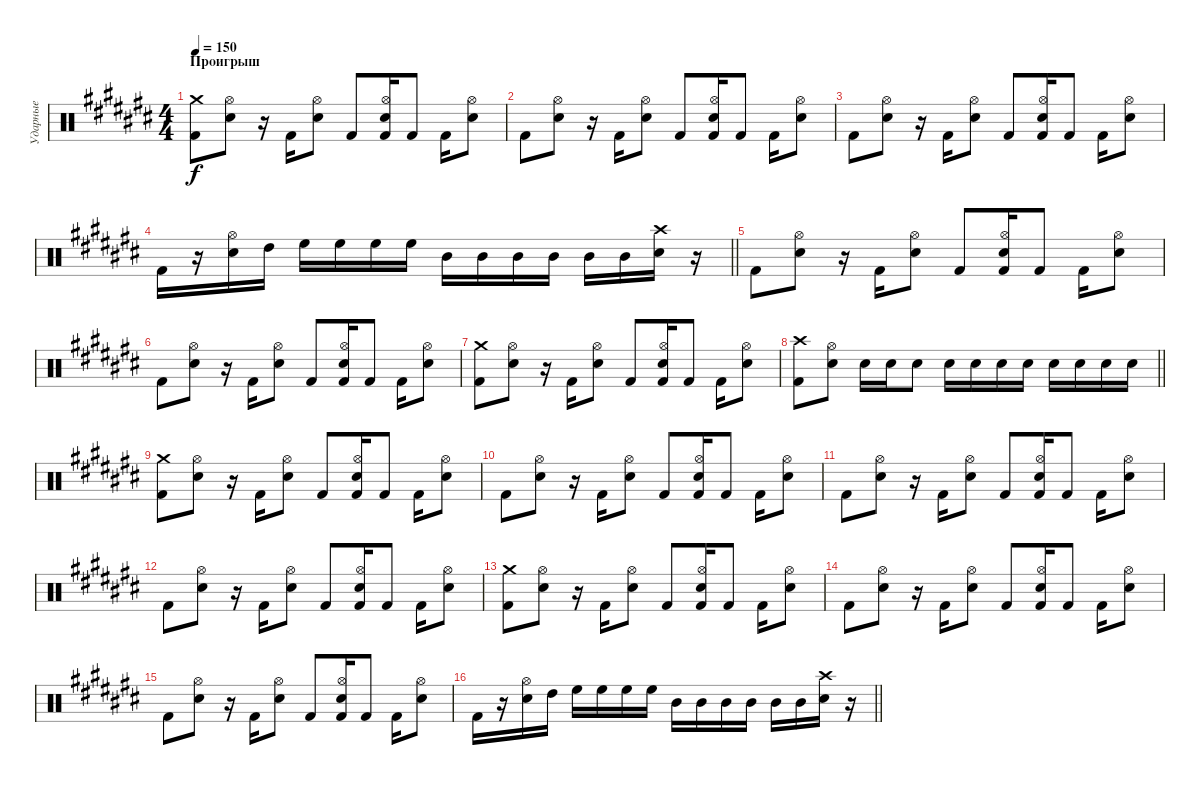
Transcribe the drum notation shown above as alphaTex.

\track ("Ударные" "Ударные") {instrument percussion}
\staff {score}
\articulation defaults
\ts (4 4)
\section ("" "Проигрыш")
\tempo 150
\clef neutral
\ks a#minor
("Crash medium (hit)" "Kick (hit) 2").8{dy f} ("Hi-Hat (open)" "Electric Snare (hit)").8 r.16 "Kick (hit) 2".16 ("Hi-Hat (open)" "Electric Snare (hit)").8 "Kick (hit) 2".8 ("Kick (hit) 2" "Hi-Hat (open)" "Electric Snare (hit)").16 "Kick (hit) 2".8 "Kick (hit) 2".16 ("Hi-Hat (open)" "Electric Snare (hit)").8 |
"Kick (hit) 2".8 ("Hi-Hat (open)" "Electric Snare (hit)").8 r.16 "Kick (hit) 2".16 ("Hi-Hat (open)" "Electric Snare (hit)").8 "Kick (hit) 2".8 ("Kick (hit) 2" "Hi-Hat (open)" "Electric Snare (hit)").16 "Kick (hit) 2".8 "Kick (hit) 2".16 ("Hi-Hat (open)" "Electric Snare (hit)").8 |
"Kick (hit) 2".8 ("Hi-Hat (open)" "Electric Snare (hit)").8 r.16 "Kick (hit) 2".16 ("Hi-Hat (open)" "Electric Snare (hit)").8 "Kick (hit) 2".8 ("Kick (hit) 2" "Hi-Hat (open)" "Electric Snare (hit)").16 "Kick (hit) 2".8 "Kick (hit) 2".16 ("Hi-Hat (open)" "Electric Snare (hit)").8 |
\barLineRight lightlight "Kick (hit) 2".16
r.16 ("Hi-Hat (open)" "Electric Snare (hit)").16 "High Tom (hit)".16 "High Floor Tom (hit)".16 "High Floor Tom (hit)".16 "High Floor Tom (hit)".16 "High Floor Tom (hit)".16 "Mid Tom (hit)".16 "Mid Tom (hit)".16 "Mid Tom (hit)".16 "Mid Tom (hit)".16 "Mid Tom (hit)".16 "Mid Tom (hit)".16 ("Crash high (hit)" "Electric Snare (hit)").16 r.16 |
"Kick (hit) 2".8 ("Hi-Hat (open)" "Electric Snare (hit)").8 r.16 "Kick (hit) 2".16 ("Hi-Hat (open)" "Electric Snare (hit)").8 "Kick (hit) 2".8 ("Kick (hit) 2" "Hi-Hat (open)" "Electric Snare (hit)").16 "Kick (hit) 2".8 "Kick (hit) 2".16 ("Hi-Hat (open)" "Electric Snare (hit)").8 |
"Kick (hit) 2".8 ("Hi-Hat (open)" "Electric Snare (hit)").8 r.16 "Kick (hit) 2".16 ("Hi-Hat (open)" "Electric Snare (hit)").8 "Kick (hit) 2".8 ("Kick (hit) 2" "Hi-Hat (open)" "Electric Snare (hit)").16 "Kick (hit) 2".8 "Kick (hit) 2".16 ("Hi-Hat (open)" "Electric Snare (hit)").8 |
("Crash medium (hit)" "Kick (hit) 2").8 ("Hi-Hat (open)" "Electric Snare (hit)").8 r.16 "Kick (hit) 2".16 ("Hi-Hat (open)" "Electric Snare (hit)").8 "Kick (hit) 2".8 ("Kick (hit) 2" "Hi-Hat (open)" "Electric Snare (hit)").16 "Kick (hit) 2".8 "Kick (hit) 2".16 ("Hi-Hat (open)" "Electric Snare (hit)").8 |
\barLineRight lightlight
("Crash high (hit)" "Kick (hit) 2").8 ("Hi-Hat (open)" "Electric Snare (hit)").8 "Electric Snare (hit)".16 "Electric Snare (hit)".16 "Electric Snare (hit)".8 "Electric Snare (hit)".16 "Electric Snare (hit)".16 "Electric Snare (hit)".16 "Electric Snare (hit)".16 "Electric Snare (hit)".16 "Electric Snare (hit)".16 "Electric Snare (hit)".16 "Electric Snare (hit)".16 |
\section ("" "")
("Crash medium (hit)" "Kick (hit) 2").8 ("Hi-Hat (open)" "Electric Snare (hit)").8 r.16 "Kick (hit) 2".16 ("Hi-Hat (open)" "Electric Snare (hit)").8 "Kick (hit) 2".8 ("Kick (hit) 2" "Hi-Hat (open)" "Electric Snare (hit)").16 "Kick (hit) 2".8 "Kick (hit) 2".16 ("Hi-Hat (open)" "Electric Snare (hit)").8 |
"Kick (hit) 2".8 ("Hi-Hat (open)" "Electric Snare (hit)").8 r.16 "Kick (hit) 2".16 ("Hi-Hat (open)" "Electric Snare (hit)").8 "Kick (hit) 2".8 ("Kick (hit) 2" "Hi-Hat (open)" "Electric Snare (hit)").16 "Kick (hit) 2".8 "Kick (hit) 2".16 ("Hi-Hat (open)" "Electric Snare (hit)").8 |
"Kick (hit) 2".8 ("Hi-Hat (open)" "Electric Snare (hit)").8 r.16 "Kick (hit) 2".16 ("Hi-Hat (open)" "Electric Snare (hit)").8 "Kick (hit) 2".8 ("Kick (hit) 2" "Hi-Hat (open)" "Electric Snare (hit)").16 "Kick (hit) 2".8 "Kick (hit) 2".16 ("Hi-Hat (open)" "Electric Snare (hit)").8 |
"Kick (hit) 2".8 ("Hi-Hat (open)" "Electric Snare (hit)").8 r.16 "Kick (hit) 2".16 ("Hi-Hat (open)" "Electric Snare (hit)").8 "Kick (hit) 2".8 ("Kick (hit) 2" "Hi-Hat (open)" "Electric Snare (hit)").16 "Kick (hit) 2".8 "Kick (hit) 2".16 ("Hi-Hat (open)" "Electric Snare (hit)").8 |
("Crash medium (hit)" "Kick (hit) 2").8 ("Hi-Hat (open)" "Electric Snare (hit)").8 r.16 "Kick (hit) 2".16 ("Hi-Hat (open)" "Electric Snare (hit)").8 "Kick (hit) 2".8 ("Kick (hit) 2" "Hi-Hat (open)" "Electric Snare (hit)").16 "Kick (hit) 2".8 "Kick (hit) 2".16 ("Hi-Hat (open)" "Electric Snare (hit)").8 |
"Kick (hit) 2".8 ("Hi-Hat (open)" "Electric Snare (hit)").8 r.16 "Kick (hit) 2".16 ("Hi-Hat (open)" "Electric Snare (hit)").8 "Kick (hit) 2".8 ("Kick (hit) 2" "Hi-Hat (open)" "Electric Snare (hit)").16 "Kick (hit) 2".8 "Kick (hit) 2".16 ("Hi-Hat (open)" "Electric Snare (hit)").8 |
"Kick (hit) 2".8 ("Hi-Hat (open)" "Electric Snare (hit)").8 r.16 "Kick (hit) 2".16 ("Hi-Hat (open)" "Electric Snare (hit)").8 "Kick (hit) 2".8 ("Kick (hit) 2" "Hi-Hat (open)" "Electric Snare (hit)").16 "Kick (hit) 2".8 "Kick (hit) 2".16 ("Hi-Hat (open)" "Electric Snare (hit)").8 |
\barLineRight lightlight "Kick (hit) 2".16
r.16 ("Hi-Hat (open)" "Electric Snare (hit)").16 "High Tom (hit)".16 "High Floor Tom (hit)".16 "High Floor Tom (hit)".16 "High Floor Tom (hit)".16 "High Floor Tom (hit)".16 "Mid Tom (hit)".16 "Mid Tom (hit)".16 "Mid Tom (hit)".16 "Mid Tom (hit)".16 "Mid Tom (hit)".16 "Mid Tom (hit)".16 ("Crash high (hit)" "Electric Snare (hit)").16 r.16
